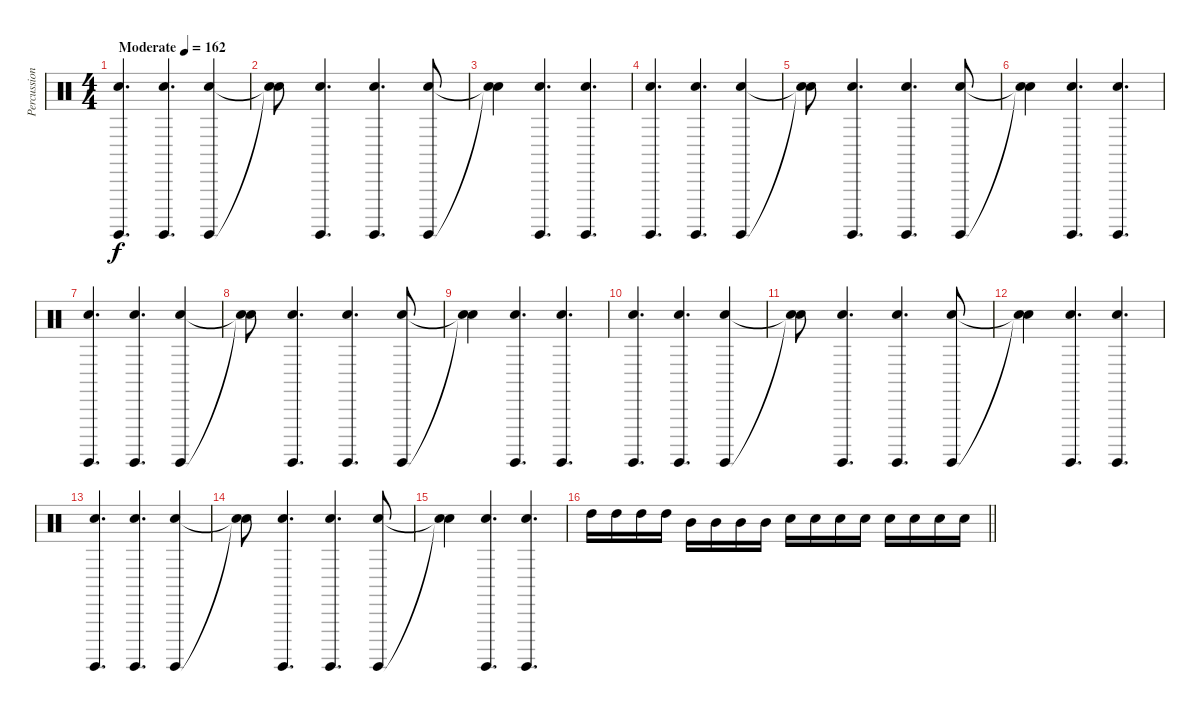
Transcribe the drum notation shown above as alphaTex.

\track ("Percussions" "Percussion") {instrument percussion}
\staff {score}
\articulation defaults
\ts (4 4)
\tempo (162 "Moderate")
\clef neutral
\ks c
("Snare (hit) 2" "Surdo (hit)").4{d dy f} ("Snare (hit) 2" "Surdo (hit)").4{d} ("Snare (hit) 2" "Surdo (hit)").4 |
("Snare (hit)"{t} "Snare (hit)"{t}).8 ("Snare (hit) 2" "Surdo (hit)").4{d} ("Snare (hit) 2" "Surdo (hit)").4{d} ("Snare (hit) 2" "Surdo (hit)").8 |
("Snare (hit)"{t} "Snare (hit)"{t}).4 ("Snare (hit) 2" "Surdo (hit)").4{d} ("Snare (hit) 2" "Surdo (hit)").4{d} |
("Snare (hit) 2" "Surdo (hit)").4{d} ("Snare (hit) 2" "Surdo (hit)").4{d} ("Snare (hit) 2" "Surdo (hit)").4 |
("Snare (hit)"{t} "Snare (hit)"{t}).8 ("Snare (hit) 2" "Surdo (hit)").4{d} ("Snare (hit) 2" "Surdo (hit)").4{d} ("Snare (hit) 2" "Surdo (hit)").8 |
("Snare (hit)"{t} "Snare (hit)"{t}).4 ("Snare (hit) 2" "Surdo (hit)").4{d} ("Snare (hit) 2" "Surdo (hit)").4{d} |
("Snare (hit) 2" "Surdo (hit)").4{d} ("Snare (hit) 2" "Surdo (hit)").4{d} ("Snare (hit) 2" "Surdo (hit)").4 |
("Snare (hit)"{t} "Snare (hit)"{t}).8 ("Snare (hit) 2" "Surdo (hit)").4{d} ("Snare (hit) 2" "Surdo (hit)").4{d} ("Snare (hit) 2" "Surdo (hit)").8 |
("Snare (hit)"{t} "Snare (hit)"{t}).4 ("Snare (hit) 2" "Surdo (hit)").4{d} ("Snare (hit) 2" "Surdo (hit)").4{d} |
("Snare (hit) 2" "Surdo (hit)").4{d} ("Snare (hit) 2" "Surdo (hit)").4{d} ("Snare (hit) 2" "Surdo (hit)").4 |
("Snare (hit)"{t} "Snare (hit)"{t}).8 ("Snare (hit) 2" "Surdo (hit)").4{d} ("Snare (hit) 2" "Surdo (hit)").4{d} ("Snare (hit) 2" "Surdo (hit)").8 |
("Snare (hit)"{t} "Snare (hit)"{t}).4 ("Snare (hit) 2" "Surdo (hit)").4{d} ("Snare (hit) 2" "Surdo (hit)").4{d} |
("Snare (hit) 2" "Surdo (hit)").4{d} ("Snare (hit) 2" "Surdo (hit)").4{d} ("Snare (hit) 2" "Surdo (hit)").4 |
("Snare (hit)"{t} "Snare (hit)"{t}).8 ("Snare (hit) 2" "Surdo (hit)").4{d} ("Snare (hit) 2" "Surdo (hit)").4{d} ("Snare (hit) 2" "Surdo (hit)").8 |
("Snare (hit)"{t} "Snare (hit)"{t}).4 ("Snare (hit) 2" "Surdo (hit)").4{d} ("Snare (hit) 2" "Surdo (hit)").4{d} |
\barLineRight lightlight "High Tom (hit)".16 "High Tom (hit)".16 "High Tom (hit)".16 "High Tom (hit)".16 "Mid Tom (hit)".16 "Mid Tom (hit)".16 "Mid Tom (hit)".16 "Mid Tom (hit)".16 "Electric Snare (hit)".16 "Electric Snare (hit)".16 "Electric Snare (hit)".16 "Electric Snare (hit)".16 "Snare (hit) 2".16 "Snare (hit) 2".16 "Snare (hit) 2".16 "Snare (hit) 2".16
